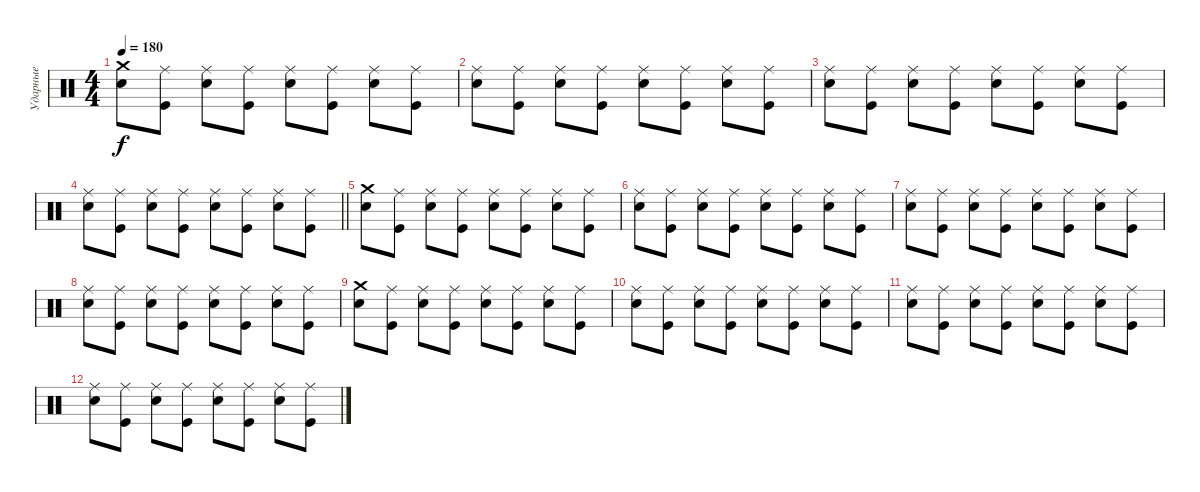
\track ("Ударные" "Ударные") {instrument percussion}
\staff {score}
\articulation defaults
\ts (4 4)
\tempo 180
\clef neutral
\ks c
("Crash medium (hit)" "Electric Snare (hit)").8{dy f} ("Ride (middle)" "Kick (hit)").8 ("Ride (middle)" "Electric Snare (hit)").8 ("Ride (middle)" "Kick (hit)").8 ("Ride (middle)" "Electric Snare (hit)").8 ("Ride (middle)" "Kick (hit)").8 ("Ride (middle)" "Electric Snare (hit)").8 ("Ride (middle)" "Kick (hit)").8 |
("Ride (middle)" "Electric Snare (hit)").8 ("Ride (middle)" "Kick (hit)").8 ("Ride (middle)" "Electric Snare (hit)").8 ("Ride (middle)" "Kick (hit)").8 ("Ride (middle)" "Electric Snare (hit)").8 ("Ride (middle)" "Kick (hit)").8 ("Ride (middle)" "Electric Snare (hit)").8 ("Ride (middle)" "Kick (hit)").8 |
("Ride (middle)" "Electric Snare (hit)").8 ("Ride (middle)" "Kick (hit)").8 ("Ride (middle)" "Electric Snare (hit)").8 ("Ride (middle)" "Kick (hit)").8 ("Ride (middle)" "Electric Snare (hit)").8 ("Ride (middle)" "Kick (hit)").8 ("Ride (middle)" "Electric Snare (hit)").8 ("Ride (middle)" "Kick (hit)").8 |
\barLineRight lightlight
("Ride (middle)" "Electric Snare (hit)").8 ("Ride (middle)" "Kick (hit)").8 ("Ride (middle)" "Electric Snare (hit)").8 ("Ride (middle)" "Kick (hit)").8 ("Ride (middle)" "Electric Snare (hit)").8 ("Ride (middle)" "Kick (hit)").8 ("Ride (middle)" "Electric Snare (hit)").8 ("Ride (middle)" "Kick (hit)").8 |
\section ("" " ")
("Crash medium (hit)" "Electric Snare (hit)").8 ("Ride (middle)" "Kick (hit)").8 ("Ride (middle)" "Electric Snare (hit)").8 ("Ride (middle)" "Kick (hit)").8 ("Ride (middle)" "Electric Snare (hit)").8 ("Ride (middle)" "Kick (hit)").8 ("Ride (middle)" "Electric Snare (hit)").8 ("Ride (middle)" "Kick (hit)").8 |
("Ride (middle)" "Electric Snare (hit)").8 ("Ride (middle)" "Kick (hit)").8 ("Ride (middle)" "Electric Snare (hit)").8 ("Ride (middle)" "Kick (hit)").8 ("Ride (middle)" "Electric Snare (hit)").8 ("Ride (middle)" "Kick (hit)").8 ("Ride (middle)" "Electric Snare (hit)").8 ("Ride (middle)" "Kick (hit)").8 |
("Ride (middle)" "Electric Snare (hit)").8 ("Ride (middle)" "Kick (hit)").8 ("Ride (middle)" "Electric Snare (hit)").8 ("Ride (middle)" "Kick (hit)").8 ("Ride (middle)" "Electric Snare (hit)").8 ("Ride (middle)" "Kick (hit)").8 ("Ride (middle)" "Electric Snare (hit)").8 ("Ride (middle)" "Kick (hit)").8 |
("Ride (middle)" "Electric Snare (hit)").8 ("Ride (middle)" "Kick (hit)").8 ("Ride (middle)" "Electric Snare (hit)").8 ("Ride (middle)" "Kick (hit)").8 ("Ride (middle)" "Electric Snare (hit)").8 ("Ride (middle)" "Kick (hit)").8 ("Ride (middle)" "Electric Snare (hit)").8 ("Ride (middle)" "Kick (hit)").8 |
("Crash medium (hit)" "Electric Snare (hit)").8 ("Ride (middle)" "Kick (hit)").8 ("Ride (middle)" "Electric Snare (hit)").8 ("Ride (middle)" "Kick (hit)").8 ("Ride (middle)" "Electric Snare (hit)").8 ("Ride (middle)" "Kick (hit)").8 ("Ride (middle)" "Electric Snare (hit)").8 ("Ride (middle)" "Kick (hit)").8 |
("Ride (middle)" "Electric Snare (hit)").8 ("Ride (middle)" "Kick (hit)").8 ("Ride (middle)" "Electric Snare (hit)").8 ("Ride (middle)" "Kick (hit)").8 ("Ride (middle)" "Electric Snare (hit)").8 ("Ride (middle)" "Kick (hit)").8 ("Ride (middle)" "Electric Snare (hit)").8 ("Ride (middle)" "Kick (hit)").8 |
("Ride (middle)" "Electric Snare (hit)").8 ("Ride (middle)" "Kick (hit)").8 ("Ride (middle)" "Electric Snare (hit)").8 ("Ride (middle)" "Kick (hit)").8 ("Ride (middle)" "Electric Snare (hit)").8 ("Ride (middle)" "Kick (hit)").8 ("Ride (middle)" "Electric Snare (hit)").8 ("Ride (middle)" "Kick (hit)").8 |
("Ride (middle)" "Electric Snare (hit)").8 ("Ride (middle)" "Kick (hit)").8 ("Ride (middle)" "Electric Snare (hit)").8 ("Ride (middle)" "Kick (hit)").8 ("Ride (middle)" "Electric Snare (hit)").8 ("Ride (middle)" "Kick (hit)").8 ("Ride (middle)" "Electric Snare (hit)").8 ("Ride (middle)" "Kick (hit)").8
